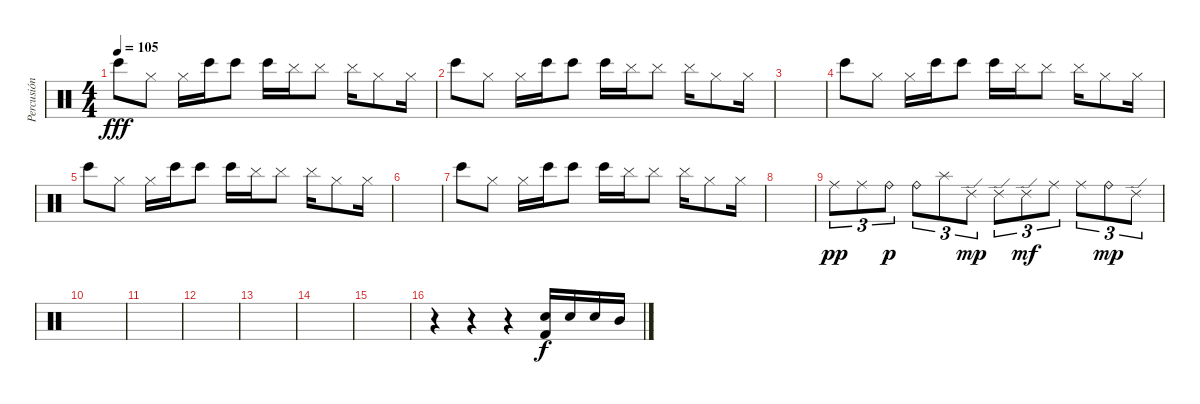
\track ("Percusión" "Percusión") {instrument percussion}
\staff {score}
\articulation defaults
\ts (4 4)
\tempo 105
\clef neutral
\ks c "Bongo High (hit)".8{dy fff} "Hi-Hat (closed)".8 "Hi-Hat (closed)".16 "Bongo High (hit)".16 "Bongo High (hit)".8 "Bongo High (hit)".16 "Cymbal (hit)".16 "Cymbal (hit)".8 "Cymbal (hit)".16 "Hi-Hat (closed)".8 "Hi-Hat (closed)".16
|
"Bongo High (hit)".8 "Hi-Hat (closed)".8 "Hi-Hat (closed)".16 "Bongo High (hit)".16 "Bongo High (hit)".8 "Bongo High (hit)".16 "Cymbal (hit)".16 "Cymbal (hit)".8 "Cymbal (hit)".16 "Hi-Hat (closed)".8 "Hi-Hat (closed)".16 |
|
"Bongo High (hit)".8 "Hi-Hat (closed)".8 "Hi-Hat (closed)".16 "Bongo High (hit)".16 "Bongo High (hit)".8 "Bongo High (hit)".16 "Cymbal (hit)".16 "Cymbal (hit)".8 "Cymbal (hit)".16 "Hi-Hat (closed)".8 "Hi-Hat (closed)".16 |
"Bongo High (hit)".8 "Hi-Hat (closed)".8 "Hi-Hat (closed)".16 "Bongo High (hit)".16 "Bongo High (hit)".8 "Bongo High (hit)".16 "Cymbal (hit)".16 "Cymbal (hit)".8 "Cymbal (hit)".16 "Hi-Hat (closed)".8 "Hi-Hat (closed)".16 |
|
"Bongo High (hit)".8 "Hi-Hat (closed)".8 "Hi-Hat (closed)".16 "Bongo High (hit)".16 "Bongo High (hit)".8 "Bongo High (hit)".16 "Cymbal (hit)".16 "Cymbal (hit)".8 "Cymbal (hit)".16 "Hi-Hat (closed)".8 "Hi-Hat (closed)".16 |
|
"Ride (middle)".8{tu (3 2) dy pp} "Ride (middle)".8{tu (3 2)} "Ride (bell)".8{tu (3 2) dy p} "Ride (bell)".8{tu (3 2)} "Splash (hit)".8{tu (3 2)} "Ride (edge) 2".8{tu (3 2) dy mp} "Ride (edge) 2".8{tu (3 2)} "Ride (edge) 2".8{tu (3 2) dy mf} "Ride (middle)".8{tu (3 2)} "Ride (middle)".8{tu (3 2)} "Ride (bell)".8{tu (3 2) dy mp} "Ride (edge) 2".8{tu (3 2)} |
|
|
|
|
|
|
r.4 r.4 r.4 ("Snare (hit) 2" "Kick (hit) 2").16{dy f} "Snare (hit) 2".16 "Snare (hit) 2".16 "Mid Tom (hit)".16
